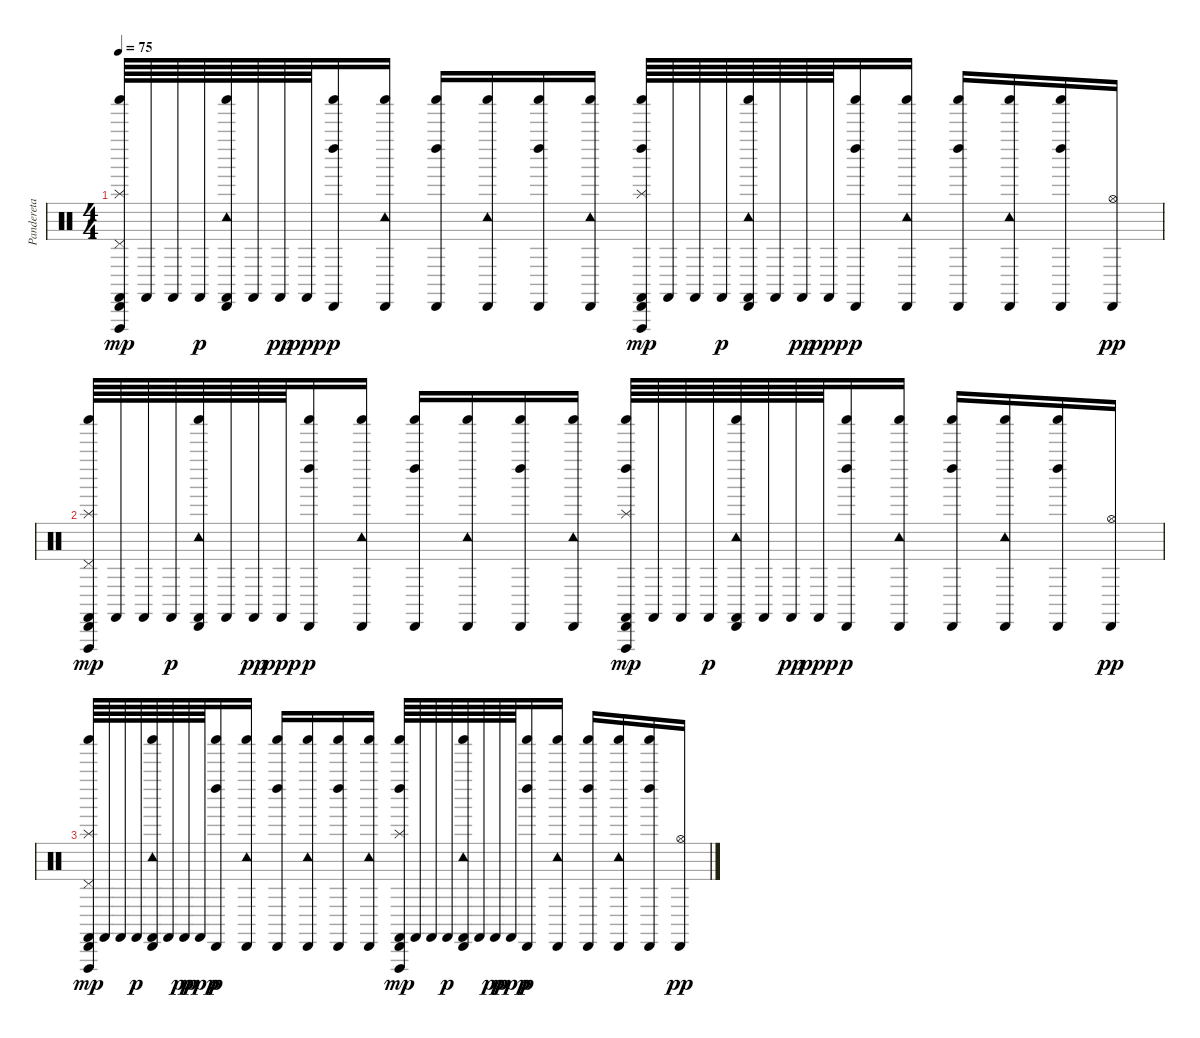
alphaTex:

\track ("Pandereta" "Pandereta") {instrument percussion}
\staff {score}
\articulation defaults
\ts (4 4)
\tempo 75
\clef neutral
\ks c
("Cabasa (hit)" "Shaker (hit)" "Pedal Hi-Hat (hit)" "Splash (hit)" "Vibraslap (hit)" "Castanets (hit)").64{dy mp} "Castanets (hit)".64 "Castanets (hit)".64 "Castanets (hit)".64{dy p} ("Cabasa (hit)" "Tambourine (hit)" "Shaker (hit)" "Castanets (hit)").64 "Castanets (hit)".64 "Castanets (hit)".64{dy pp} "Castanets (hit)".64{dy ppp} ("Cabasa (hit)" "Left Maraca (hit)" "Shaker (hit)").16{dy p} ("Cabasa (hit)" "Tambourine (hit)" "Shaker (hit)").16 ("Cabasa (hit)" "Left Maraca (hit)" "Shaker (hit)").16 ("Cabasa (hit)" "Tambourine (hit)" "Shaker (hit)").16 ("Cabasa (hit)" "Left Maraca (hit)" "Shaker (hit)").16 ("Cabasa (hit)" "Tambourine (hit)" "Shaker (hit)").16 ("Cabasa (hit)" "Left Maraca (hit)" "Splash (hit)" "Shaker (hit)" "Vibraslap (hit)" "Castanets (hit)").64{dy mp} "Castanets (hit)".64 "Castanets (hit)".64 "Castanets (hit)".64{dy p} ("Cabasa (hit)" "Tambourine (hit)" "Shaker (hit)" "Castanets (hit)").64 "Castanets (hit)".64 "Castanets (hit)".64{dy pp} "Castanets (hit)".64{dy ppp} ("Cabasa (hit)" "Left Maraca (hit)" "Shaker (hit)").16{dy p} ("Cabasa (hit)" "Tambourine (hit)" "Shaker (hit)").16 ("Cabasa (hit)" "Left Maraca (hit)" "Shaker (hit)").16 ("Cabasa (hit)" "Tambourine (hit)" "Shaker (hit)").16 ("Cabasa (hit)" "Left Maraca (hit)" "Shaker (hit)").16 ("Cabasa (hit)" "Hi-Hat (open)").16{dy pp} |
("Cabasa (hit)" "Shaker (hit)" "Pedal Hi-Hat (hit)" "Splash (hit)" "Vibraslap (hit)" "Castanets (hit)").64{dy mp} "Castanets (hit)".64 "Castanets (hit)".64 "Castanets (hit)".64{dy p} ("Cabasa (hit)" "Tambourine (hit)" "Shaker (hit)" "Castanets (hit)").64 "Castanets (hit)".64 "Castanets (hit)".64{dy pp} "Castanets (hit)".64{dy ppp} ("Cabasa (hit)" "Left Maraca (hit)" "Shaker (hit)").16{dy p} ("Cabasa (hit)" "Tambourine (hit)" "Shaker (hit)").16 ("Cabasa (hit)" "Left Maraca (hit)" "Shaker (hit)").16 ("Cabasa (hit)" "Tambourine (hit)" "Shaker (hit)").16 ("Cabasa (hit)" "Left Maraca (hit)" "Shaker (hit)").16 ("Cabasa (hit)" "Tambourine (hit)" "Shaker (hit)").16 ("Cabasa (hit)" "Left Maraca (hit)" "Splash (hit)" "Shaker (hit)" "Vibraslap (hit)" "Castanets (hit)").64{dy mp} "Castanets (hit)".64 "Castanets (hit)".64 "Castanets (hit)".64{dy p} ("Cabasa (hit)" "Tambourine (hit)" "Shaker (hit)" "Castanets (hit)").64 "Castanets (hit)".64 "Castanets (hit)".64{dy pp} "Castanets (hit)".64{dy ppp} ("Cabasa (hit)" "Left Maraca (hit)" "Shaker (hit)").16{dy p} ("Cabasa (hit)" "Tambourine (hit)" "Shaker (hit)").16 ("Cabasa (hit)" "Left Maraca (hit)" "Shaker (hit)").16 ("Cabasa (hit)" "Tambourine (hit)" "Shaker (hit)").16 ("Cabasa (hit)" "Left Maraca (hit)" "Shaker (hit)").16 ("Cabasa (hit)" "Hi-Hat (open)").16{dy pp} |
("Cabasa (hit)" "Shaker (hit)" "Pedal Hi-Hat (hit)" "Splash (hit)" "Vibraslap (hit)" "Castanets (hit)").64{dy mp} "Castanets (hit)".64 "Castanets (hit)".64 "Castanets (hit)".64{dy p} ("Cabasa (hit)" "Tambourine (hit)" "Shaker (hit)" "Castanets (hit)").64 "Castanets (hit)".64 "Castanets (hit)".64{dy pp} "Castanets (hit)".64{dy ppp} ("Cabasa (hit)" "Left Maraca (hit)" "Shaker (hit)").16{dy p} ("Cabasa (hit)" "Tambourine (hit)" "Shaker (hit)").16 ("Cabasa (hit)" "Left Maraca (hit)" "Shaker (hit)").16 ("Cabasa (hit)" "Tambourine (hit)" "Shaker (hit)").16 ("Cabasa (hit)" "Left Maraca (hit)" "Shaker (hit)").16 ("Cabasa (hit)" "Tambourine (hit)" "Shaker (hit)").16 ("Cabasa (hit)" "Left Maraca (hit)" "Splash (hit)" "Shaker (hit)" "Vibraslap (hit)" "Castanets (hit)").64{dy mp} "Castanets (hit)".64 "Castanets (hit)".64 "Castanets (hit)".64{dy p} ("Cabasa (hit)" "Tambourine (hit)" "Shaker (hit)" "Castanets (hit)").64 "Castanets (hit)".64 "Castanets (hit)".64{dy pp} "Castanets (hit)".64{dy ppp} ("Cabasa (hit)" "Left Maraca (hit)" "Shaker (hit)").16{dy p} ("Cabasa (hit)" "Tambourine (hit)" "Shaker (hit)").16 ("Cabasa (hit)" "Left Maraca (hit)" "Shaker (hit)").16 ("Cabasa (hit)" "Tambourine (hit)" "Shaker (hit)").16 ("Cabasa (hit)" "Left Maraca (hit)" "Shaker (hit)").16 ("Cabasa (hit)" "Hi-Hat (open)").16{dy pp}
